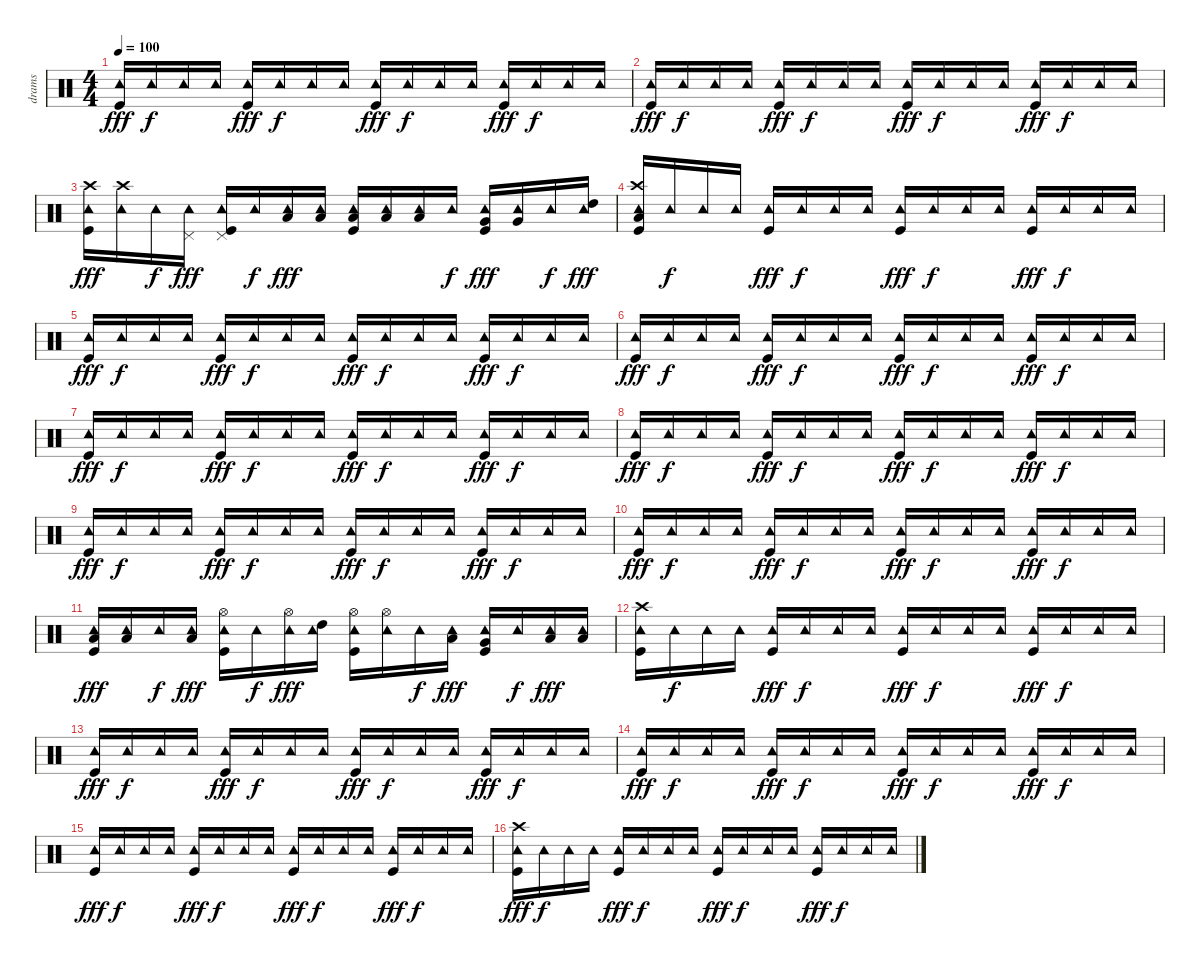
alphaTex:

\track ("drams" "drams") {instrument percussion}
\staff {score}
\articulation defaults
\ts (4 4)
\tempo 100
\clef neutral
\ks c
("Kick (hit)" "Tambourine (hit)").16{dy fff} "Tambourine (hit)".16{dy f} "Tambourine (hit)".16 "Tambourine (hit)".16 ("Kick (hit)" "Tambourine (hit)").16{dy fff} "Tambourine (hit)".16{dy f} "Tambourine (hit)".16 "Tambourine (hit)".16 ("Kick (hit)" "Tambourine (hit)").16{dy fff} "Tambourine (hit)".16{dy f} "Tambourine (hit)".16 "Tambourine (hit)".16 ("Kick (hit)" "Tambourine (hit)").16{dy fff} "Tambourine (hit)".16{dy f} "Tambourine (hit)".16 "Tambourine (hit)".16 |
("Tambourine (hit)" "Kick (hit)").16{dy fff} "Tambourine (hit)".16{dy f} "Tambourine (hit)".16 "Tambourine (hit)".16 ("Tambourine (hit)" "Kick (hit)").16{dy fff} "Tambourine (hit)".16{dy f} "Tambourine (hit)".16 "Tambourine (hit)".16 ("Tambourine (hit)" "Kick (hit)").16{dy fff} "Tambourine (hit)".16{dy f} "Tambourine (hit)".16 "Tambourine (hit)".16 ("Tambourine (hit)" "Kick (hit)").16{dy fff} "Tambourine (hit)".16{dy f} "Tambourine (hit)".16 "Tambourine (hit)".16 |
("Crash high (hit)" "Tambourine (hit)" "Kick (hit)").16{dy fff} ("Crash high (hit)" "Tambourine (hit)").16 "Tambourine (hit)".16{dy f} ("Pedal Hi-Hat (hit)" "Tambourine (hit)").16{dy fff} ("Pedal Hi-Hat (hit)" "Tambourine (hit)" "Kick (hit)").16 "Tambourine (hit)".16{dy f} ("Low Floor Tom (hit)" "Tambourine (hit)").16{dy fff} ("Low Floor Tom (hit)" "Tambourine (hit)").16 ("Low Floor Tom (hit)" "Tambourine (hit)" "Kick (hit)").16 ("Low Tom (hit)" "Tambourine (hit)").16 ("Low Tom (hit)" "Tambourine (hit)").16 "Tambourine (hit)".16{dy f} ("Very Low Tom (hit)" "Tambourine (hit)" "Kick (hit)").16{dy fff} ("Very Low Tom (hit)" "Tambourine (hit)").16 "Tambourine (hit)".16{dy f} ("High Tom (hit)" "Tambourine (hit)").16{dy fff} |
("Kick (hit)" "Low Floor Tom (hit)" "Crash high (hit)" "Tambourine (hit)").16 "Tambourine (hit)".16{dy f} "Tambourine (hit)".16 "Tambourine (hit)".16 ("Kick (hit)" "Tambourine (hit)").16{dy fff} "Tambourine (hit)".16{dy f} "Tambourine (hit)".16 "Tambourine (hit)".16 ("Kick (hit)" "Tambourine (hit)").16{dy fff} "Tambourine (hit)".16{dy f} "Tambourine (hit)".16 "Tambourine (hit)".16 ("Kick (hit)" "Tambourine (hit)").16{dy fff} "Tambourine (hit)".16{dy f} "Tambourine (hit)".16 "Tambourine (hit)".16 |
("Kick (hit)" "Tambourine (hit)").16{dy fff} "Tambourine (hit)".16{dy f} "Tambourine (hit)".16 "Tambourine (hit)".16 ("Kick (hit)" "Tambourine (hit)").16{dy fff} "Tambourine (hit)".16{dy f} "Tambourine (hit)".16 "Tambourine (hit)".16 ("Kick (hit)" "Tambourine (hit)").16{dy fff} "Tambourine (hit)".16{dy f} "Tambourine (hit)".16 "Tambourine (hit)".16 ("Kick (hit)" "Tambourine (hit)").16{dy fff} "Tambourine (hit)".16{dy f} "Tambourine (hit)".16 "Tambourine (hit)".16 |
("Kick (hit)" "Tambourine (hit)").16{dy fff} "Tambourine (hit)".16{dy f} "Tambourine (hit)".16 "Tambourine (hit)".16 ("Kick (hit)" "Tambourine (hit)").16{dy fff} "Tambourine (hit)".16{dy f} "Tambourine (hit)".16 "Tambourine (hit)".16 ("Kick (hit)" "Tambourine (hit)").16{dy fff} "Tambourine (hit)".16{dy f} "Tambourine (hit)".16 "Tambourine (hit)".16 ("Kick (hit)" "Tambourine (hit)").16{dy fff} "Tambourine (hit)".16{dy f} "Tambourine (hit)".16 "Tambourine (hit)".16 |
("Kick (hit)" "Tambourine (hit)").16{dy fff} "Tambourine (hit)".16{dy f} "Tambourine (hit)".16 "Tambourine (hit)".16 ("Kick (hit)" "Tambourine (hit)").16{dy fff} "Tambourine (hit)".16{dy f} "Tambourine (hit)".16 "Tambourine (hit)".16 ("Kick (hit)" "Tambourine (hit)").16{dy fff} "Tambourine (hit)".16{dy f} "Tambourine (hit)".16 "Tambourine (hit)".16 ("Kick (hit)" "Tambourine (hit)").16{dy fff} "Tambourine (hit)".16{dy f} "Tambourine (hit)".16 "Tambourine (hit)".16 |
("Kick (hit)" "Tambourine (hit)").16{dy fff} "Tambourine (hit)".16{dy f} "Tambourine (hit)".16 "Tambourine (hit)".16 ("Kick (hit)" "Tambourine (hit)").16{dy fff} "Tambourine (hit)".16{dy f} "Tambourine (hit)".16 "Tambourine (hit)".16 ("Kick (hit)" "Tambourine (hit)").16{dy fff} "Tambourine (hit)".16{dy f} "Tambourine (hit)".16 "Tambourine (hit)".16 ("Kick (hit)" "Tambourine (hit)").16{dy fff} "Tambourine (hit)".16{dy f} "Tambourine (hit)".16 "Tambourine (hit)".16 |
("Kick (hit)" "Tambourine (hit)").16{dy fff} "Tambourine (hit)".16{dy f} "Tambourine (hit)".16 "Tambourine (hit)".16 ("Kick (hit)" "Tambourine (hit)").16{dy fff} "Tambourine (hit)".16{dy f} "Tambourine (hit)".16 "Tambourine (hit)".16 ("Kick (hit)" "Tambourine (hit)").16{dy fff} "Tambourine (hit)".16{dy f} "Tambourine (hit)".16 "Tambourine (hit)".16 ("Kick (hit)" "Tambourine (hit)").16{dy fff} "Tambourine (hit)".16{dy f} "Tambourine (hit)".16 "Tambourine (hit)".16 |
("Kick (hit)" "Tambourine (hit)").16{dy fff} "Tambourine (hit)".16{dy f} "Tambourine (hit)".16 "Tambourine (hit)".16 ("Kick (hit)" "Tambourine (hit)").16{dy fff} "Tambourine (hit)".16{dy f} "Tambourine (hit)".16 "Tambourine (hit)".16 ("Kick (hit)" "Tambourine (hit)").16{dy fff} "Tambourine (hit)".16{dy f} "Tambourine (hit)".16 "Tambourine (hit)".16 ("Kick (hit)" "Tambourine (hit)").16{dy fff} "Tambourine (hit)".16{dy f} "Tambourine (hit)".16 "Tambourine (hit)".16 |
("Kick (hit)" "Low Floor Tom (hit)" "Tambourine (hit)").16{dy fff} ("Low Floor Tom (hit)" "Tambourine (hit)").16 "Tambourine (hit)".16{dy f} ("Low Tom (hit)" "Tambourine (hit)").16{dy fff} ("Kick (hit)" "Hi-Hat (open)" "Tambourine (hit)").16 "Tambourine (hit)".16{dy f} ("Hi-Hat (open)" "Tambourine (hit)").16{dy fff} ("High Tom (hit)" "Tambourine (hit)").16 ("Kick (hit)" "Hi-Hat (open)" "Tambourine (hit)").16 ("Hi-Hat (open)" "Tambourine (hit)").16 "Tambourine (hit)".16{dy f} ("Low Tom (hit)" "Tambourine (hit)").16{dy fff} ("Kick (hit)" "Very Low Tom (hit)" "Tambourine (hit)").16 "Tambourine (hit)".16{dy f} ("Low Floor Tom (hit)" "Tambourine (hit)").16{dy fff} ("Low Floor Tom (hit)" "Tambourine (hit)").16 |
("Kick (hit)" "Crash high (hit)" "Tambourine (hit)").16 "Tambourine (hit)".16{dy f} "Tambourine (hit)".16 "Tambourine (hit)".16 ("Kick (hit)" "Tambourine (hit)").16{dy fff} "Tambourine (hit)".16{dy f} "Tambourine (hit)".16 "Tambourine (hit)".16 ("Kick (hit)" "Tambourine (hit)").16{dy fff} "Tambourine (hit)".16{dy f} "Tambourine (hit)".16 "Tambourine (hit)".16 ("Kick (hit)" "Tambourine (hit)").16{dy fff} "Tambourine (hit)".16{dy f} "Tambourine (hit)".16 "Tambourine (hit)".16 |
("Kick (hit)" "Tambourine (hit)").16{dy fff} "Tambourine (hit)".16{dy f} "Tambourine (hit)".16 "Tambourine (hit)".16 ("Kick (hit)" "Tambourine (hit)").16{dy fff} "Tambourine (hit)".16{dy f} "Tambourine (hit)".16 "Tambourine (hit)".16 ("Kick (hit)" "Tambourine (hit)").16{dy fff} "Tambourine (hit)".16{dy f} "Tambourine (hit)".16 "Tambourine (hit)".16 ("Kick (hit)" "Tambourine (hit)").16{dy fff} "Tambourine (hit)".16{dy f} "Tambourine (hit)".16 "Tambourine (hit)".16 |
("Kick (hit)" "Tambourine (hit)").16{dy fff} "Tambourine (hit)".16{dy f} "Tambourine (hit)".16 "Tambourine (hit)".16 ("Kick (hit)" "Tambourine (hit)").16{dy fff} "Tambourine (hit)".16{dy f} "Tambourine (hit)".16 "Tambourine (hit)".16 ("Kick (hit)" "Tambourine (hit)").16{dy fff} "Tambourine (hit)".16{dy f} "Tambourine (hit)".16 "Tambourine (hit)".16 ("Kick (hit)" "Tambourine (hit)").16{dy fff} "Tambourine (hit)".16{dy f} "Tambourine (hit)".16 "Tambourine (hit)".16 |
("Kick (hit)" "Tambourine (hit)").16{dy fff} "Tambourine (hit)".16{dy f} "Tambourine (hit)".16 "Tambourine (hit)".16 ("Kick (hit)" "Tambourine (hit)").16{dy fff} "Tambourine (hit)".16{dy f} "Tambourine (hit)".16 "Tambourine (hit)".16 ("Kick (hit)" "Tambourine (hit)").16{dy fff} "Tambourine (hit)".16{dy f} "Tambourine (hit)".16 "Tambourine (hit)".16 ("Kick (hit)" "Tambourine (hit)").16{dy fff} "Tambourine (hit)".16{dy f} "Tambourine (hit)".16 "Tambourine (hit)".16 |
("Kick (hit)" "Crash high (hit)" "Tambourine (hit)").16{dy fff} "Tambourine (hit)".16{dy f} "Tambourine (hit)".16 "Tambourine (hit)".16 ("Kick (hit)" "Tambourine (hit)").16{dy fff} "Tambourine (hit)".16{dy f} "Tambourine (hit)".16 "Tambourine (hit)".16 ("Kick (hit)" "Tambourine (hit)").16{dy fff} "Tambourine (hit)".16{dy f} "Tambourine (hit)".16 "Tambourine (hit)".16 ("Kick (hit)" "Tambourine (hit)").16{dy fff} "Tambourine (hit)".16{dy f} "Tambourine (hit)".16 "Tambourine (hit)".16
